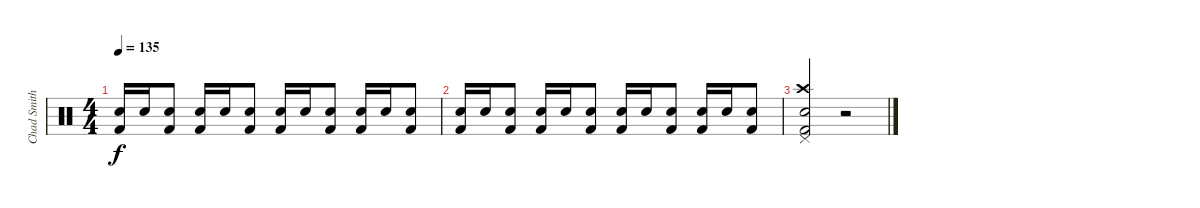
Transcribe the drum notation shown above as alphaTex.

\track ("Chad Smith" "Chad Smith") {instrument percussion}
\staff {score}
\articulation defaults
\ts (4 4)
\tempo 135
\clef neutral
\ks c
("Electric Snare (hit)" "Kick (hit) 2").16{dy f} "Electric Snare (hit)".16 ("Electric Snare (hit)" "Kick (hit) 2").8 ("Electric Snare (hit)" "Kick (hit) 2").16 "Electric Snare (hit)".16 ("Electric Snare (hit)" "Kick (hit) 2").8 ("Electric Snare (hit)" "Kick (hit) 2").16 "Electric Snare (hit)".16 ("Electric Snare (hit)" "Kick (hit) 2").8 ("Electric Snare (hit)" "Kick (hit) 2").16 "Electric Snare (hit)".16 ("Electric Snare (hit)" "Kick (hit) 2").8 |
("Electric Snare (hit)" "Kick (hit) 2").16 "Electric Snare (hit)".16 ("Electric Snare (hit)" "Kick (hit) 2").8 ("Electric Snare (hit)" "Kick (hit) 2").16 "Electric Snare (hit)".16 ("Electric Snare (hit)" "Kick (hit) 2").8 ("Electric Snare (hit)" "Kick (hit) 2").16 "Electric Snare (hit)".16 ("Electric Snare (hit)" "Kick (hit) 2").8 ("Electric Snare (hit)" "Kick (hit) 2").16 "Electric Snare (hit)".16 ("Electric Snare (hit)" "Kick (hit) 2").8 |
("Crash high (hit)" "Pedal Hi-Hat (hit)" "Electric Snare (hit)" "Kick (hit) 2").2 r.2
